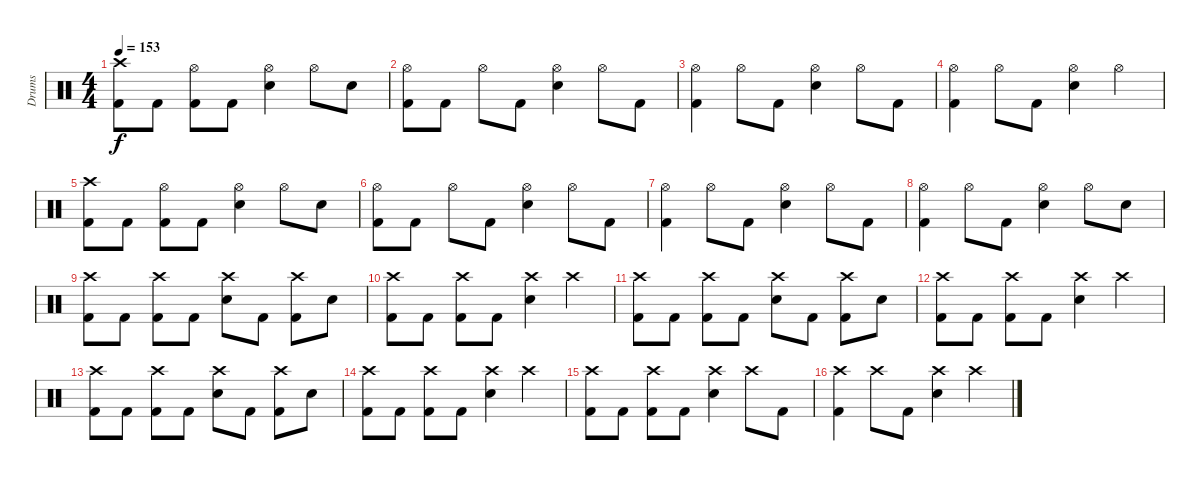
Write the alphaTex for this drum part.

\track ("Drums" "Drums") {instrument percussion}
\staff {score}
\articulation defaults
\ts (4 4)
\tempo 153
\clef neutral
\ks c
("Crash high (hit)" "Kick (hit) 2").8{dy f} "Kick (hit) 2".8 ("Hi-Hat (open)" "Kick (hit) 2").8 "Kick (hit) 2".8 ("Hi-Hat (open)" "Electric Snare (hit)").4 "Hi-Hat (open)".8 "Electric Snare (hit)".8 |
("Hi-Hat (open)" "Kick (hit) 2").8 "Kick (hit) 2".8 "Hi-Hat (open)".8 "Kick (hit) 2".8 ("Hi-Hat (open)" "Electric Snare (hit)").4 "Hi-Hat (open)".8 "Kick (hit) 2".8 |
("Hi-Hat (open)" "Kick (hit) 2").4 "Hi-Hat (open)".8 "Kick (hit) 2".8 ("Hi-Hat (open)" "Electric Snare (hit)").4 "Hi-Hat (open)".8 "Kick (hit) 2".8 |
("Hi-Hat (open)" "Kick (hit) 2").4 "Hi-Hat (open)".8 "Kick (hit) 2".8 ("Hi-Hat (open)" "Electric Snare (hit)").4 "Hi-Hat (open)".4 |
("Crash high (hit)" "Kick (hit) 2").8 "Kick (hit) 2".8 ("Hi-Hat (open)" "Kick (hit) 2").8 "Kick (hit) 2".8 ("Hi-Hat (open)" "Electric Snare (hit)").4 "Hi-Hat (open)".8 "Electric Snare (hit)".8 |
("Hi-Hat (open)" "Kick (hit) 2").8 "Kick (hit) 2".8 "Hi-Hat (open)".8 "Kick (hit) 2".8 ("Hi-Hat (open)" "Electric Snare (hit)").4 "Hi-Hat (open)".8 "Kick (hit) 2".8 |
("Hi-Hat (open)" "Kick (hit) 2").4 "Hi-Hat (open)".8 "Kick (hit) 2".8 ("Hi-Hat (open)" "Electric Snare (hit)").4 "Hi-Hat (open)".8 "Kick (hit) 2".8 |
("Hi-Hat (open)" "Kick (hit) 2").4 "Hi-Hat (open)".8 "Kick (hit) 2".8 ("Hi-Hat (open)" "Electric Snare (hit)").4 "Hi-Hat (open)".8 "Electric Snare (hit)".8 |
("Crash high (hit)" "Kick (hit) 2").8 "Kick (hit) 2".8 ("Crash high (hit)" "Kick (hit) 2").8 "Kick (hit) 2".8 ("Crash high (hit)" "Electric Snare (hit)").8 "Kick (hit) 2".8 ("Crash high (hit)" "Kick (hit) 2").8 "Electric Snare (hit)".8 |
("Crash high (hit)" "Kick (hit) 2").8 "Kick (hit) 2".8 ("Crash high (hit)" "Kick (hit) 2").8 "Kick (hit) 2".8 ("Crash high (hit)" "Electric Snare (hit)").4 "Crash high (hit)".4 |
("Crash high (hit)" "Kick (hit) 2").8 "Kick (hit) 2".8 ("Crash high (hit)" "Kick (hit) 2").8 "Kick (hit) 2".8 ("Crash high (hit)" "Electric Snare (hit)").8 "Kick (hit) 2".8 ("Crash high (hit)" "Kick (hit) 2").8 "Electric Snare (hit)".8 |
("Crash high (hit)" "Kick (hit) 2").8 "Kick (hit) 2".8 ("Crash high (hit)" "Kick (hit) 2").8 "Kick (hit) 2".8 ("Crash high (hit)" "Electric Snare (hit)").4 "Crash high (hit)".4 |
("Crash high (hit)" "Kick (hit) 2").8 "Kick (hit) 2".8 ("Crash high (hit)" "Kick (hit) 2").8 "Kick (hit) 2".8 ("Crash high (hit)" "Electric Snare (hit)").8 "Kick (hit) 2".8 ("Crash high (hit)" "Kick (hit) 2").8 "Electric Snare (hit)".8 |
("Crash high (hit)" "Kick (hit) 2").8 "Kick (hit) 2".8 ("Crash high (hit)" "Kick (hit) 2").8 "Kick (hit) 2".8 ("Crash high (hit)" "Electric Snare (hit)").4 "Crash high (hit)".4 |
("Crash high (hit)" "Kick (hit) 2").8 "Kick (hit) 2".8 ("Crash high (hit)" "Kick (hit) 2").8 "Kick (hit) 2".8 ("Crash high (hit)" "Electric Snare (hit)").4 "Crash high (hit)".8 "Kick (hit) 2".8 |
("Crash high (hit)" "Kick (hit) 2").4 "Crash high (hit)".8 "Kick (hit) 2".8 ("Crash high (hit)" "Electric Snare (hit)").4 "Crash high (hit)".4
